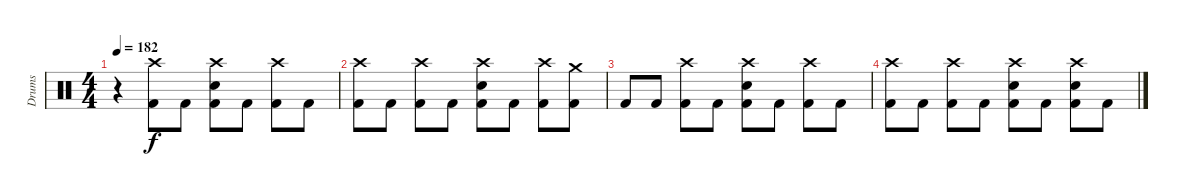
\track ("Drums" "Drums") {instrument percussion}
\staff {score}
\articulation defaults
\ts (4 4)
\tempo 182
\clef neutral
\ks c
r.4{dy f volume 2} ("Crash high (hit)" "Kick (hit) 2").8 "Kick (hit) 2".8 ("Crash high (hit)" "Snare (hit) 2" "Kick (hit) 2").8 "Kick (hit) 2".8 ("Crash high (hit)" "Kick (hit) 2").8 "Kick (hit) 2".8 |
("Crash high (hit)" "Kick (hit) 2").8 "Kick (hit) 2".8 ("Crash high (hit)" "Kick (hit) 2").8 "Kick (hit) 2".8 ("Crash high (hit)" "Snare (hit) 2" "Kick (hit) 2").8 "Kick (hit) 2".8 ("Crash high (hit)" "Kick (hit) 2").8 ("Crash medium (hit)" "Kick (hit) 2").8 |
"Kick (hit) 2".8 "Kick (hit) 2".8 ("Crash high (hit)" "Kick (hit) 2").8 "Kick (hit) 2".8 ("Crash high (hit)" "Snare (hit) 2" "Kick (hit) 2").8 "Kick (hit) 2".8 ("Crash high (hit)" "Kick (hit) 2").8 "Kick (hit) 2".8 |
("Crash high (hit)" "Kick (hit) 2").8 "Kick (hit) 2".8 ("Crash high (hit)" "Kick (hit) 2").8 "Kick (hit) 2".8 ("Crash high (hit)" "Snare (hit) 2" "Kick (hit) 2").8 "Kick (hit) 2".8 ("Crash high (hit)" "Snare (hit) 2" "Kick (hit) 2").8 "Kick (hit) 2".8
